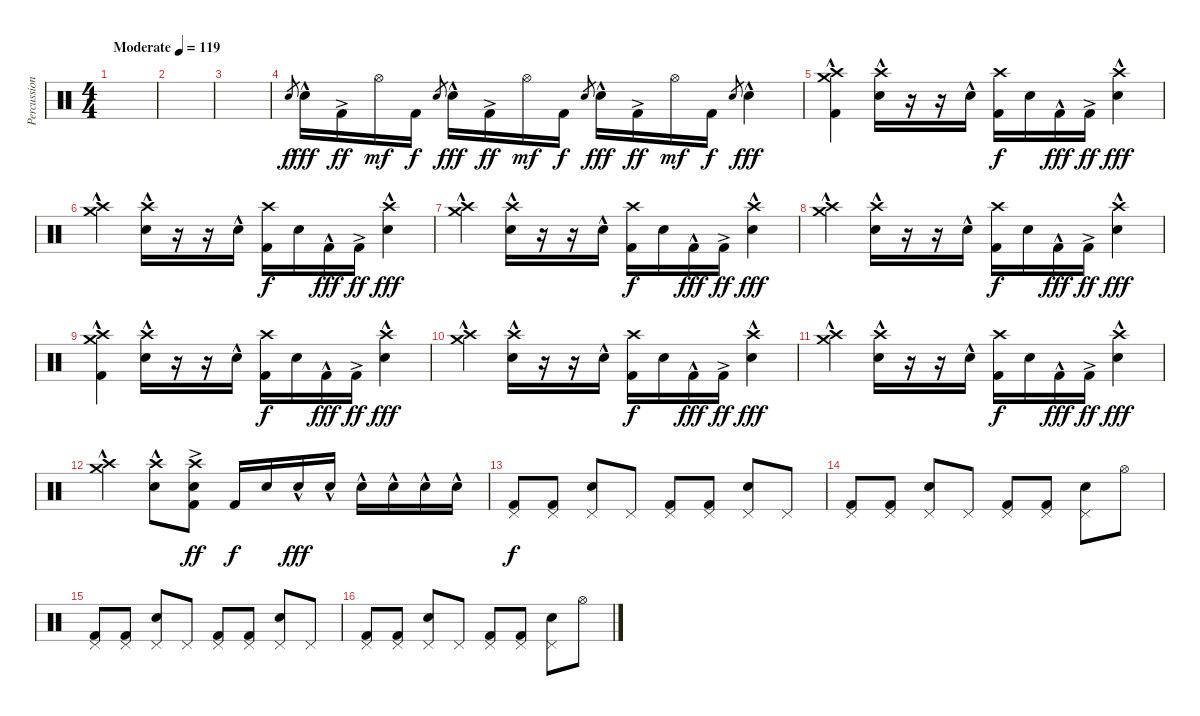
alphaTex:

\track ("Percussion" "Percussion") {instrument percussion}
\staff {score}
\articulation defaults
\ts (4 4)
\tempo (119 "Moderate")
\clef neutral
\ks c
|
|
|
"Electric Snare (hit)".8{gr} "Electric Snare (hit)"{hac}.16{dy fff} "Kick (hit) 2"{ac}.16{dy ff} "Hi-Hat (open)".16{dy mf} "Kick (hit) 2".16{dy f} "Electric Snare (hit)".8{gr} "Electric Snare (hit)"{hac}.16{dy fff} "Kick (hit) 2"{ac}.16{dy ff} "Hi-Hat (open)".16{dy mf} "Kick (hit) 2".16{dy f} "Electric Snare (hit)".8{gr} "Electric Snare (hit)"{hac}.16{dy fff} "Kick (hit) 2"{ac}.16{dy ff} "Hi-Hat (open)".16{dy mf} "Kick (hit) 2".16{dy f} "Electric Snare (hit)".8{gr} "Electric Snare (hit)"{hac}.4{dy fff} |
("Crash high (hit)" "Crash medium (hit)"{hac} "Kick (hit) 2").4 ("Crash high (hit)" "Electric Snare (hit)"{hac}).16 r.16 r.16 "Electric Snare (hit)"{hac}.16 ("Crash high (hit)" "Kick (hit) 2").16{dy f} "Electric Snare (hit)".16 "Kick (hit) 2"{hac}.16{dy fff} "Kick (hit) 2"{ac}.16{dy ff} ("Crash high (hit)" "Electric Snare (hit)"{hac}).4{dy fff} |
("Crash high (hit)" "Crash medium (hit)"{hac}).4 ("Crash high (hit)" "Electric Snare (hit)"{hac}).16 r.16 r.16 "Electric Snare (hit)"{hac}.16 ("Crash high (hit)" "Kick (hit) 2").16{dy f} "Electric Snare (hit)".16 "Kick (hit) 2"{hac}.16{dy fff} "Kick (hit) 2"{ac}.16{dy ff} ("Crash high (hit)" "Electric Snare (hit)"{hac}).4{dy fff} |
("Crash high (hit)" "Crash medium (hit)"{hac}).4 ("Crash high (hit)" "Electric Snare (hit)"{hac}).16 r.16 r.16 "Electric Snare (hit)"{hac}.16 ("Crash high (hit)" "Kick (hit) 2").16{dy f} "Electric Snare (hit)".16 "Kick (hit) 2"{hac}.16{dy fff} "Kick (hit) 2"{ac}.16{dy ff} ("Crash high (hit)" "Electric Snare (hit)"{hac}).4{dy fff} |
("Crash high (hit)" "Crash medium (hit)"{hac}).4 ("Crash high (hit)" "Electric Snare (hit)"{hac}).16 r.16 r.16 "Electric Snare (hit)"{hac}.16 ("Crash high (hit)" "Kick (hit) 2").16{dy f} "Electric Snare (hit)".16 "Kick (hit) 2"{hac}.16{dy fff} "Kick (hit) 2"{ac}.16{dy ff} ("Crash high (hit)" "Electric Snare (hit)"{hac}).4{dy fff} |
("Crash high (hit)" "Crash medium (hit)"{hac} "Kick (hit) 2").4 ("Crash high (hit)" "Electric Snare (hit)"{hac}).16 r.16 r.16 "Electric Snare (hit)"{hac}.16 ("Crash high (hit)" "Kick (hit) 2").16{dy f} "Electric Snare (hit)".16 "Kick (hit) 2"{hac}.16{dy fff} "Kick (hit) 2"{ac}.16{dy ff} ("Crash high (hit)" "Electric Snare (hit)"{hac}).4{dy fff} |
("Crash high (hit)" "Crash medium (hit)"{hac}).4 ("Crash high (hit)" "Electric Snare (hit)"{hac}).16 r.16 r.16 "Electric Snare (hit)"{hac}.16 ("Crash high (hit)" "Kick (hit) 2").16{dy f} "Electric Snare (hit)".16 "Kick (hit) 2"{hac}.16{dy fff} "Kick (hit) 2"{ac}.16{dy ff} ("Crash high (hit)" "Electric Snare (hit)"{hac}).4{dy fff} |
("Crash high (hit)" "Crash medium (hit)"{hac}).4 ("Crash high (hit)" "Electric Snare (hit)"{hac}).16 r.16 r.16 "Electric Snare (hit)"{hac}.16 ("Crash high (hit)" "Kick (hit) 2").16{dy f} "Electric Snare (hit)".16 "Kick (hit) 2"{hac}.16{dy fff} "Kick (hit) 2"{ac}.16{dy ff} ("Crash high (hit)" "Electric Snare (hit)"{hac}).4{dy fff} |
("Crash high (hit)" "Crash medium (hit)"{hac}).4 ("Crash high (hit)" "Electric Snare (hit)"{hac}).8 ("Crash high (hit)"{ac} "Electric Snare (hit)"{ac} "Kick (hit) 2").8{dy ff} "Kick (hit) 2".16{dy f} "Electric Snare (hit)".16 "Electric Snare (hit)"{hac}.16{dy fff} "Electric Snare (hit)"{hac}.16 "Electric Snare (hit)"{hac}.16 "Electric Snare (hit)"{hac}.16 "Electric Snare (hit)"{hac}.16 "Electric Snare (hit)"{hac}.16 |
("Pedal Hi-Hat (hit)" "Kick (hit) 2").8{dy f} ("Pedal Hi-Hat (hit)" "Kick (hit) 2").8 ("Pedal Hi-Hat (hit)" "Electric Snare (hit)").8 "Pedal Hi-Hat (hit)".8 ("Pedal Hi-Hat (hit)" "Kick (hit) 2").8 ("Pedal Hi-Hat (hit)" "Kick (hit) 2").8 ("Pedal Hi-Hat (hit)" "Electric Snare (hit)").8 "Pedal Hi-Hat (hit)".8 |
("Pedal Hi-Hat (hit)" "Kick (hit) 2").8 ("Pedal Hi-Hat (hit)" "Kick (hit) 2").8 ("Pedal Hi-Hat (hit)" "Electric Snare (hit)").8 "Pedal Hi-Hat (hit)".8 ("Pedal Hi-Hat (hit)" "Kick (hit) 2").8 ("Pedal Hi-Hat (hit)" "Kick (hit) 2").8 ("Pedal Hi-Hat (hit)" "Electric Snare (hit)").8 "Hi-Hat (open)".8 |
("Pedal Hi-Hat (hit)" "Kick (hit) 2").8 ("Pedal Hi-Hat (hit)" "Kick (hit) 2").8 ("Pedal Hi-Hat (hit)" "Electric Snare (hit)").8 "Pedal Hi-Hat (hit)".8 ("Pedal Hi-Hat (hit)" "Kick (hit) 2").8 ("Pedal Hi-Hat (hit)" "Kick (hit) 2").8 ("Pedal Hi-Hat (hit)" "Electric Snare (hit)").8 "Pedal Hi-Hat (hit)".8 |
("Pedal Hi-Hat (hit)" "Kick (hit) 2").8 ("Pedal Hi-Hat (hit)" "Kick (hit) 2").8 ("Pedal Hi-Hat (hit)" "Electric Snare (hit)").8 "Pedal Hi-Hat (hit)".8 ("Pedal Hi-Hat (hit)" "Kick (hit) 2").8 ("Pedal Hi-Hat (hit)" "Kick (hit) 2").8 ("Pedal Hi-Hat (hit)" "Electric Snare (hit)").8 "Hi-Hat (open)".8
